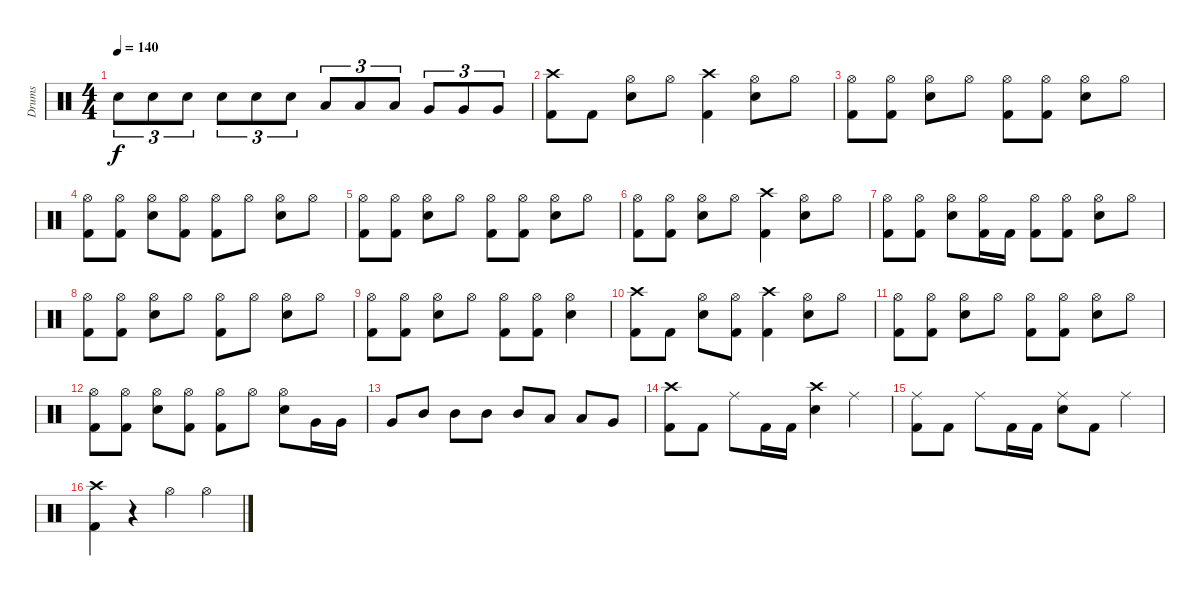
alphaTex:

\track ("Drums" "Drums") {instrument percussion}
\staff {score}
\articulation defaults
\ts (4 4)
\tempo 140
\clef neutral
\ks c "Electric Snare (hit)".8{tu (3 2) dy f} "Electric Snare (hit)".8{tu (3 2)} "Electric Snare (hit)".8{tu (3 2)} "Electric Snare (hit)".8{tu (3 2)} "Electric Snare (hit)".8{tu (3 2)} "Electric Snare (hit)".8{tu (3 2)} "Low Tom (hit)".8{tu (3 2)} "Low Tom (hit)".8{tu (3 2)} "Low Tom (hit)".8{tu (3 2)} "Very Low Tom (hit)".8{tu (3 2)} "Very Low Tom (hit)".8{tu (3 2)} "Very Low Tom (hit)".8{tu (3 2)}
|
("Crash high (hit)" "Kick (hit) 2").8 "Kick (hit) 2".8 ("Hi-Hat (open)" "Electric Snare (hit)").8 "Hi-Hat (open)".8 ("Crash high (hit)" "Kick (hit) 2").4 ("Hi-Hat (open)" "Electric Snare (hit)").8 "Hi-Hat (open)".8 |
("Hi-Hat (open)" "Kick (hit) 2").8 ("Hi-Hat (open)" "Kick (hit) 2").8 ("Hi-Hat (open)" "Electric Snare (hit)").8 "Hi-Hat (open)".8 ("Hi-Hat (open)" "Kick (hit) 2").8 ("Hi-Hat (open)" "Kick (hit) 2").8 ("Hi-Hat (open)" "Electric Snare (hit)").8 "Hi-Hat (open)".8 |
("Hi-Hat (open)" "Kick (hit) 2").8 ("Hi-Hat (open)" "Kick (hit) 2").8 ("Hi-Hat (open)" "Electric Snare (hit)").8 ("Hi-Hat (open)" "Kick (hit) 2").8 ("Hi-Hat (open)" "Kick (hit) 2").8 "Hi-Hat (open)".8 ("Hi-Hat (open)" "Electric Snare (hit)").8 "Hi-Hat (open)".8 |
("Hi-Hat (open)" "Kick (hit) 2").8 ("Hi-Hat (open)" "Kick (hit) 2").8 ("Hi-Hat (open)" "Electric Snare (hit)").8 "Hi-Hat (open)".8 ("Hi-Hat (open)" "Kick (hit) 2").8 ("Hi-Hat (open)" "Kick (hit) 2").8 ("Hi-Hat (open)" "Electric Snare (hit)").8 "Hi-Hat (open)".8 |
("Hi-Hat (open)" "Kick (hit) 2").8 ("Hi-Hat (open)" "Kick (hit) 2").8 ("Hi-Hat (open)" "Electric Snare (hit)").8 "Hi-Hat (open)".8 ("Crash high (hit)" "Kick (hit) 2").4 ("Hi-Hat (open)" "Electric Snare (hit)").8 "Hi-Hat (open)".8 |
("Hi-Hat (open)" "Kick (hit) 2").8 ("Hi-Hat (open)" "Kick (hit) 2").8 ("Hi-Hat (open)" "Electric Snare (hit)").8 ("Hi-Hat (open)" "Kick (hit) 2").16 "Kick (hit) 2".16 ("Hi-Hat (open)" "Kick (hit) 2").8 ("Hi-Hat (open)" "Kick (hit) 2").8 ("Hi-Hat (open)" "Electric Snare (hit)").8 "Hi-Hat (open)".8 |
("Hi-Hat (open)" "Kick (hit) 2").8 ("Hi-Hat (open)" "Kick (hit) 2").8 ("Hi-Hat (open)" "Electric Snare (hit)").8 "Hi-Hat (open)".8 ("Hi-Hat (open)" "Kick (hit) 2").8 "Hi-Hat (open)".8 ("Hi-Hat (open)" "Electric Snare (hit)").8 "Hi-Hat (open)".8 |
("Hi-Hat (open)" "Kick (hit) 2").8 ("Hi-Hat (open)" "Kick (hit) 2").8 ("Hi-Hat (open)" "Electric Snare (hit)").8 "Hi-Hat (open)".8 ("Hi-Hat (open)" "Kick (hit) 2").8 ("Hi-Hat (open)" "Kick (hit) 2").8 ("Hi-Hat (open)" "Electric Snare (hit)").4 |
("Crash high (hit)" "Kick (hit) 2").8 "Kick (hit) 2".8 ("Hi-Hat (open)" "Electric Snare (hit)").8 ("Hi-Hat (open)" "Kick (hit) 2").8 ("Crash high (hit)" "Kick (hit) 2").4 ("Hi-Hat (open)" "Electric Snare (hit)").8 "Hi-Hat (open)".8 |
("Hi-Hat (open)" "Kick (hit) 2").8 ("Hi-Hat (open)" "Kick (hit) 2").8 ("Hi-Hat (open)" "Electric Snare (hit)").8 "Hi-Hat (open)".8 ("Hi-Hat (open)" "Kick (hit) 2").8 ("Hi-Hat (open)" "Kick (hit) 2").8 ("Hi-Hat (open)" "Electric Snare (hit)").8 "Hi-Hat (open)".8 |
("Hi-Hat (open)" "Kick (hit) 2").8 ("Hi-Hat (open)" "Kick (hit) 2").8 ("Hi-Hat (open)" "Electric Snare (hit)").8 ("Hi-Hat (open)" "Kick (hit) 2").8 ("Hi-Hat (open)" "Kick (hit) 2").8 "Hi-Hat (open)".8 ("Hi-Hat (open)" "Electric Snare (hit)").8 "Very Low Tom (hit)".16 "Very Low Tom (hit)".16 |
"Very Low Tom (hit)".8 "Mid Tom (hit)".8 "Mid Tom (hit)".8 "Mid Tom (hit)".8 "Mid Tom (hit)".8 "Low Tom (hit)".8 "Low Tom (hit)".8 "Very Low Tom (hit)".8 |
("Crash high (hit)" "Kick (hit) 2").8 "Kick (hit) 2".8 "Ride (middle)".8 "Kick (hit) 2".16 "Kick (hit) 2".16 ("Crash high (hit)" "Electric Snare (hit)").4 "Ride (middle)".4 |
("Ride (middle)" "Kick (hit) 2").8 "Kick (hit) 2".8 "Ride (middle)".8 "Kick (hit) 2".16 "Kick (hit) 2".16 ("Ride (middle)" "Electric Snare (hit)").8 "Kick (hit) 2".8 "Ride (middle)".4 |
("Crash high (hit)" "Kick (hit) 2").4 r.4 "Hi-Hat (open)".4 "Hi-Hat (open)".4
